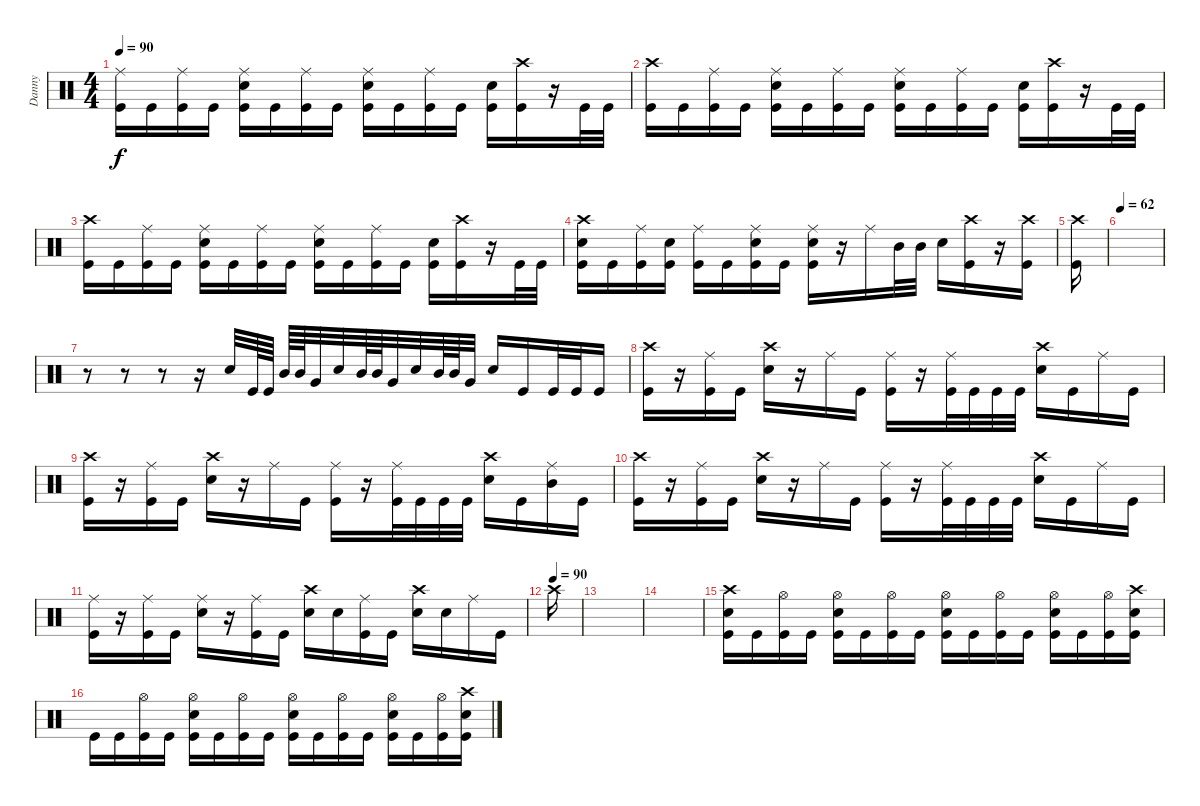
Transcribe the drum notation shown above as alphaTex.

\track ("Danny" "Danny") {instrument percussion}
\staff {score}
\articulation defaults
\ts (4 4)
\tempo 90
\clef neutral
\ks c
("Ride (middle)" "Kick (hit)").16{dy f} "Kick (hit)".16 ("Ride (middle)" "Kick (hit)").16 "Kick (hit)".16 ("Ride (middle)" "Electric Snare (hit)" "Kick (hit)").16 "Kick (hit)".16 ("Ride (middle)" "Kick (hit)").16 "Kick (hit)".16 ("Ride (middle)" "Electric Snare (hit)" "Kick (hit)").16 "Kick (hit)".16 ("Ride (middle)" "Kick (hit)").16 "Kick (hit)".16 ("Electric Snare (hit)" "Kick (hit)").16 ("Crash high (hit)" "Kick (hit)").16 r.16 "Kick (hit)".32 "Kick (hit)".32 |
("Crash high (hit)" "Kick (hit)").16 "Kick (hit)".16 ("Ride (middle)" "Kick (hit)").16 "Kick (hit)".16 ("Ride (middle)" "Electric Snare (hit)" "Kick (hit)").16 "Kick (hit)".16 ("Ride (middle)" "Kick (hit)").16 "Kick (hit)".16 ("Ride (middle)" "Electric Snare (hit)" "Kick (hit)").16 "Kick (hit)".16 ("Ride (middle)" "Kick (hit)").16 "Kick (hit)".16 ("Electric Snare (hit)" "Kick (hit)").16 ("Crash high (hit)" "Kick (hit)").16 r.16 "Kick (hit)".32 "Kick (hit)".32 |
("Crash high (hit)" "Kick (hit)").16 "Kick (hit)".16 ("Ride (middle)" "Kick (hit)").16 "Kick (hit)".16 ("Ride (middle)" "Electric Snare (hit)" "Kick (hit)").16 "Kick (hit)".16 ("Ride (middle)" "Kick (hit)").16 "Kick (hit)".16 ("Ride (middle)" "Electric Snare (hit)" "Kick (hit)").16 "Kick (hit)".16 ("Ride (middle)" "Kick (hit)").16 "Kick (hit)".16 ("Electric Snare (hit)" "Kick (hit)").16 ("Crash high (hit)" "Kick (hit)").16 r.16 "Kick (hit)".32 "Kick (hit)".32 |
("Crash high (hit)" "Electric Snare (hit)" "Kick (hit)").16 "Kick (hit)".16 ("Ride (middle)" "Kick (hit)").16 ("Electric Snare (hit)" "Kick (hit)").16 ("Ride (middle)" "Kick (hit)").16 "Kick (hit)".16 ("Ride (middle)" "Electric Snare (hit)" "Kick (hit)").16 "Kick (hit)".16 ("Ride (middle)" "Electric Snare (hit)" "Kick (hit)").16 r.16 "Ride (middle)".16 "Mid Tom (hit)".32 "Mid Tom (hit)".32 "Electric Snare (hit)".16 ("Crash high (hit)" "Kick (hit)").16 r.16 ("Crash high (hit)" "Kick (hit)").16 |
("Crash high (hit)" "Kick (hit)").16 |
\tempo 62
|
r.8 r.8 r.8 r.16 "Electric Snare (hit)".32 "Kick (hit)".64 "Kick (hit)".64 "Mid Tom (hit)".64 "Mid Tom (hit)".64 "Very Low Tom (hit)".32 "Electric Snare (hit)".32 "Mid Tom (hit)".64 "Mid Tom (hit)".64 "Very Low Tom (hit)".32 "Electric Snare (hit)".32 "Mid Tom (hit)".64 "Mid Tom (hit)".64 "Very Low Tom (hit)".32 "Electric Snare (hit)".16 "Kick (hit)".16 "Kick (hit)".32 "Kick (hit)".32 "Kick (hit)".16 |
("Crash high (hit)" "Kick (hit)").16 r.16 ("Ride (middle)" "Kick (hit)").16 "Kick (hit)".16 ("Crash high (hit)" "Electric Snare (hit)").16 r.16 "Ride (middle)".16 "Kick (hit)".16 ("Ride (middle)" "Kick (hit)").16 r.16 ("Ride (middle)" "Kick (hit)").32 "Kick (hit)".32 "Kick (hit)".32 "Kick (hit)".32 ("Crash high (hit)" "Electric Snare (hit)").16 "Kick (hit)".16 "Ride (middle)".16 "Kick (hit)".16 |
("Crash high (hit)" "Kick (hit)").16 r.16 ("Ride (middle)" "Kick (hit)").16 "Kick (hit)".16 ("Crash high (hit)" "Electric Snare (hit)").16 r.16 "Ride (middle)".16 "Kick (hit)".16 ("Ride (middle)" "Kick (hit)").16 r.16 ("Ride (middle)" "Kick (hit)").32 "Kick (hit)".32 "Kick (hit)".32 "Kick (hit)".32 ("Crash high (hit)" "Electric Snare (hit)").16 "Kick (hit)".16 ("Ride (middle)" "Mid Tom (hit)").16 "Kick (hit)".16 |
("Crash high (hit)" "Kick (hit)").16 r.16 ("Ride (middle)" "Kick (hit)").16 "Kick (hit)".16 ("Crash high (hit)" "Electric Snare (hit)").16 r.16 "Ride (middle)".16 "Kick (hit)".16 ("Ride (middle)" "Kick (hit)").16 r.16 ("Ride (middle)" "Kick (hit)").32 "Kick (hit)".32 "Kick (hit)".32 "Kick (hit)".32 ("Crash high (hit)" "Electric Snare (hit)").16 "Kick (hit)".16 "Ride (middle)".16 "Kick (hit)".16 |
("Ride (middle)" "Kick (hit)").16 r.16 ("Ride (middle)" "Kick (hit)").16 "Kick (hit)".16 ("Ride (middle)" "Electric Snare (hit)").16 r.16 ("Ride (middle)" "Kick (hit)").16 "Kick (hit)".16 ("Crash high (hit)" "Electric Snare (hit)").16 "Electric Snare (hit)".16 ("Ride (middle)" "Kick (hit)").16 "Kick (hit)".16 ("Crash high (hit)" "Electric Snare (hit)").16 "Electric Snare (hit)".16 "Ride (middle)".16 "Kick (hit)".16 |
\tempo (90)
"Crash high (hit)".16 |
|
|
("Crash high (hit)" "Electric Snare (hit)" "Kick (hit)").16 "Kick (hit)".16 ("Hi-Hat (open)" "Kick (hit)").16 "Kick (hit)".16 ("Hi-Hat (open)" "Electric Snare (hit)" "Kick (hit)").16 "Kick (hit)".16 ("Hi-Hat (open)" "Kick (hit)").16 "Kick (hit)".16 ("Hi-Hat (open)" "Electric Snare (hit)" "Kick (hit)").16 "Kick (hit)".16 ("Hi-Hat (open)" "Kick (hit)").16 "Kick (hit)".16 ("Hi-Hat (open)" "Electric Snare (hit)" "Kick (hit)").16 "Kick (hit)".16 ("Hi-Hat (open)" "Kick (hit)").16 ("Crash high (hit)" "Electric Snare (hit)" "Kick (hit)").16 |
"Kick (hit)".16 "Kick (hit)".16 ("Hi-Hat (open)" "Kick (hit)").16 "Kick (hit)".16 ("Hi-Hat (open)" "Electric Snare (hit)" "Kick (hit)").16 "Kick (hit)".16 ("Hi-Hat (open)" "Kick (hit)").16 "Kick (hit)".16 ("Hi-Hat (open)" "Electric Snare (hit)" "Kick (hit)").16 "Kick (hit)".16 ("Hi-Hat (open)" "Kick (hit)").16 "Kick (hit)".16 ("Hi-Hat (open)" "Electric Snare (hit)" "Kick (hit)").16 "Kick (hit)".16 ("Hi-Hat (open)" "Kick (hit)").16 ("Crash high (hit)" "Electric Snare (hit)" "Kick (hit)").16
